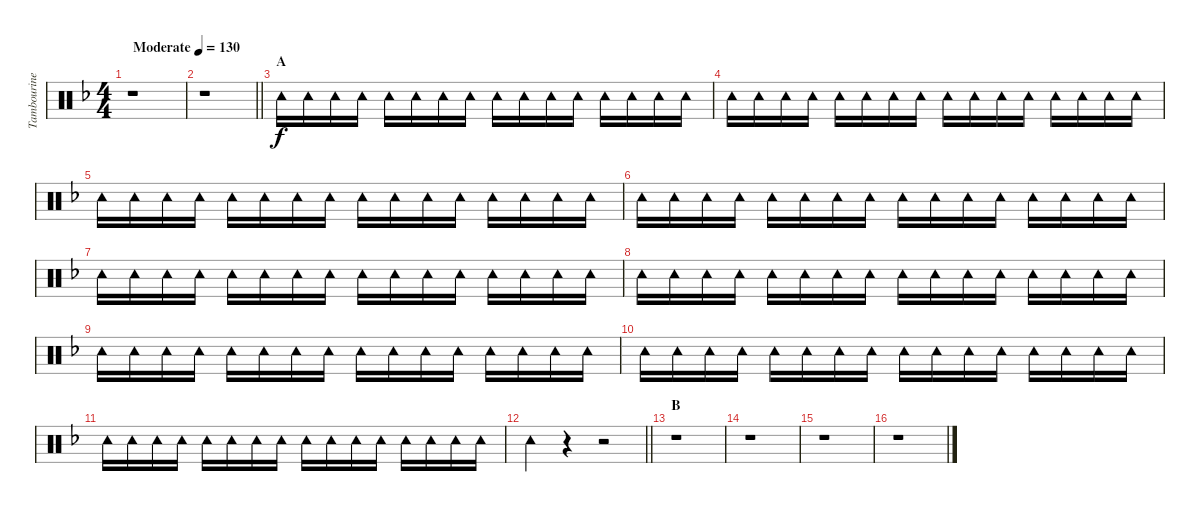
\track ("Tambourine" "Tambourine") {instrument percussion}
\staff {score}
\articulation defaults
\ts (4 4)
\tempo (130 "Moderate")
\clef neutral
\ks f
r.1{dy f} |
\barLineRight lightlight
r.1 |
\section ("" "A")
"Tambourine (hit)".16 "Tambourine (hit)".16 "Tambourine (hit)".16 "Tambourine (hit)".16 "Tambourine (hit)".16 "Tambourine (hit)".16 "Tambourine (hit)".16 "Tambourine (hit)".16 "Tambourine (hit)".16 "Tambourine (hit)".16 "Tambourine (hit)".16 "Tambourine (hit)".16 "Tambourine (hit)".16 "Tambourine (hit)".16 "Tambourine (hit)".16 "Tambourine (hit)".16 |
"Tambourine (hit)".16 "Tambourine (hit)".16 "Tambourine (hit)".16 "Tambourine (hit)".16 "Tambourine (hit)".16 "Tambourine (hit)".16 "Tambourine (hit)".16 "Tambourine (hit)".16 "Tambourine (hit)".16 "Tambourine (hit)".16 "Tambourine (hit)".16 "Tambourine (hit)".16 "Tambourine (hit)".16 "Tambourine (hit)".16 "Tambourine (hit)".16 "Tambourine (hit)".16 |
"Tambourine (hit)".16 "Tambourine (hit)".16 "Tambourine (hit)".16 "Tambourine (hit)".16 "Tambourine (hit)".16 "Tambourine (hit)".16 "Tambourine (hit)".16 "Tambourine (hit)".16 "Tambourine (hit)".16 "Tambourine (hit)".16 "Tambourine (hit)".16 "Tambourine (hit)".16 "Tambourine (hit)".16 "Tambourine (hit)".16 "Tambourine (hit)".16 "Tambourine (hit)".16 |
"Tambourine (hit)".16 "Tambourine (hit)".16 "Tambourine (hit)".16 "Tambourine (hit)".16 "Tambourine (hit)".16 "Tambourine (hit)".16 "Tambourine (hit)".16 "Tambourine (hit)".16 "Tambourine (hit)".16 "Tambourine (hit)".16 "Tambourine (hit)".16 "Tambourine (hit)".16 "Tambourine (hit)".16 "Tambourine (hit)".16 "Tambourine (hit)".16 "Tambourine (hit)".16 |
"Tambourine (hit)".16 "Tambourine (hit)".16 "Tambourine (hit)".16 "Tambourine (hit)".16 "Tambourine (hit)".16 "Tambourine (hit)".16 "Tambourine (hit)".16 "Tambourine (hit)".16 "Tambourine (hit)".16 "Tambourine (hit)".16 "Tambourine (hit)".16 "Tambourine (hit)".16 "Tambourine (hit)".16 "Tambourine (hit)".16 "Tambourine (hit)".16 "Tambourine (hit)".16 |
"Tambourine (hit)".16 "Tambourine (hit)".16 "Tambourine (hit)".16 "Tambourine (hit)".16 "Tambourine (hit)".16 "Tambourine (hit)".16 "Tambourine (hit)".16 "Tambourine (hit)".16 "Tambourine (hit)".16 "Tambourine (hit)".16 "Tambourine (hit)".16 "Tambourine (hit)".16 "Tambourine (hit)".16 "Tambourine (hit)".16 "Tambourine (hit)".16 "Tambourine (hit)".16 |
"Tambourine (hit)".16 "Tambourine (hit)".16 "Tambourine (hit)".16 "Tambourine (hit)".16 "Tambourine (hit)".16 "Tambourine (hit)".16 "Tambourine (hit)".16 "Tambourine (hit)".16 "Tambourine (hit)".16 "Tambourine (hit)".16 "Tambourine (hit)".16 "Tambourine (hit)".16 "Tambourine (hit)".16 "Tambourine (hit)".16 "Tambourine (hit)".16 "Tambourine (hit)".16 |
"Tambourine (hit)".16 "Tambourine (hit)".16 "Tambourine (hit)".16 "Tambourine (hit)".16 "Tambourine (hit)".16 "Tambourine (hit)".16 "Tambourine (hit)".16 "Tambourine (hit)".16 "Tambourine (hit)".16 "Tambourine (hit)".16 "Tambourine (hit)".16 "Tambourine (hit)".16 "Tambourine (hit)".16 "Tambourine (hit)".16 "Tambourine (hit)".16 "Tambourine (hit)".16 |
"Tambourine (hit)".16 "Tambourine (hit)".16 "Tambourine (hit)".16 "Tambourine (hit)".16 "Tambourine (hit)".16 "Tambourine (hit)".16 "Tambourine (hit)".16 "Tambourine (hit)".16 "Tambourine (hit)".16 "Tambourine (hit)".16 "Tambourine (hit)".16 "Tambourine (hit)".16 "Tambourine (hit)".16 "Tambourine (hit)".16 "Tambourine (hit)".16 "Tambourine (hit)".16 |
\barLineRight lightlight "Tambourine (hit)".4
r.4 r.2 |
\section ("" "B")
r.1 |
r.1 |
r.1 |
r.1
